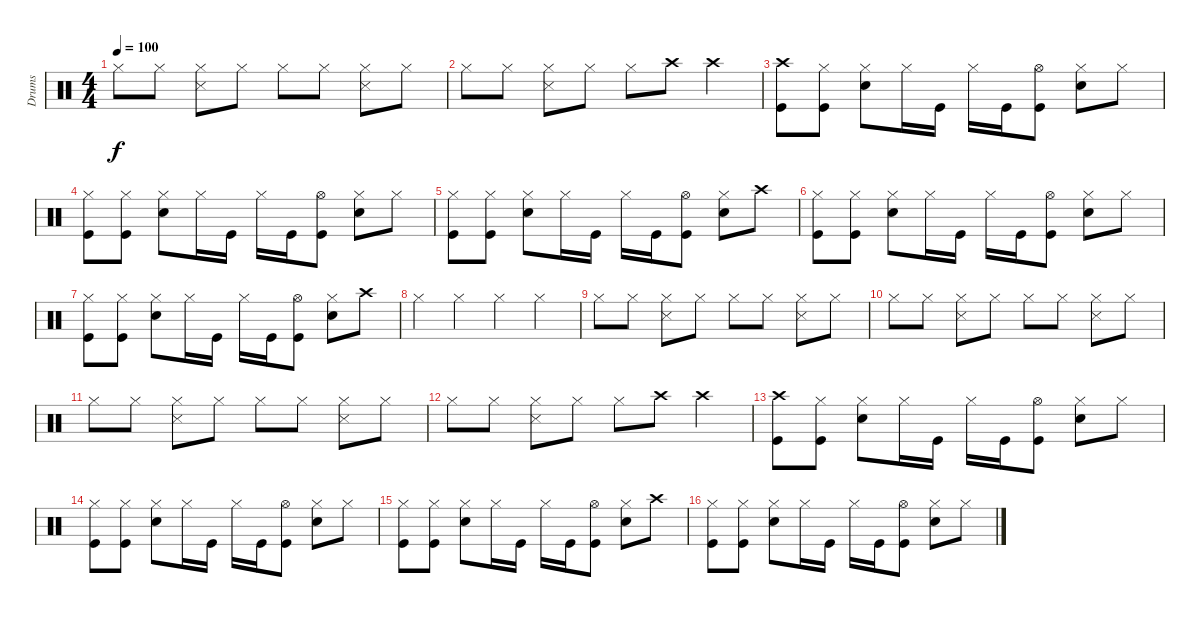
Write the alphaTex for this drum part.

\track ("Drums" "Drums") {instrument percussion}
\staff {score}
\articulation defaults
\ts (4 4)
\tempo 100
\clef neutral
\ks c "Hi-Hat (closed)".8{dy f} "Hi-Hat (closed)".8
("Hi-Hat (closed)" "Snare (side stick) 3").8 "Hi-Hat (closed)".8 "Hi-Hat (closed)".8 "Hi-Hat (closed)".8 ("Hi-Hat (closed)" "Snare (side stick) 3").8 "Hi-Hat (closed)".8 |
"Hi-Hat (closed)".8 "Hi-Hat (closed)".8 ("Hi-Hat (closed)" "Snare (side stick) 3").8 "Hi-Hat (closed)".8 "Hi-Hat (closed)".8 "Crash high (hit)".8 "Crash high (hit)".4 |
("Crash high (hit)" "Kick (hit)").8 ("Hi-Hat (closed)" "Kick (hit)").8 ("Hi-Hat (closed)" "Snare (hit) 2").8 "Hi-Hat (closed)".16 "Kick (hit)".16 "Hi-Hat (closed)".16 "Kick (hit)".16 ("Hi-Hat (open)" "Kick (hit)").8 ("Hi-Hat (closed)" "Snare (hit) 2").8 "Hi-Hat (closed)".8 |
("Hi-Hat (closed)" "Kick (hit)").8 ("Hi-Hat (closed)" "Kick (hit)").8 ("Hi-Hat (closed)" "Snare (hit) 2").8 "Hi-Hat (closed)".16 "Kick (hit)".16 "Hi-Hat (closed)".16 "Kick (hit)".16 ("Hi-Hat (open)" "Kick (hit)").8 ("Hi-Hat (closed)" "Snare (hit) 2").8 "Hi-Hat (closed)".8 |
("Hi-Hat (closed)" "Kick (hit)").8 ("Hi-Hat (closed)" "Kick (hit)").8 ("Hi-Hat (closed)" "Snare (hit) 2").8 "Hi-Hat (closed)".16 "Kick (hit)".16 "Hi-Hat (closed)".16 "Kick (hit)".16 ("Hi-Hat (open)" "Kick (hit)").8 ("Hi-Hat (closed)" "Snare (hit) 2").8 "Crash high (hit)".8 |
("Hi-Hat (closed)" "Kick (hit)").8 ("Hi-Hat (closed)" "Kick (hit)").8 ("Hi-Hat (closed)" "Snare (hit) 2").8 "Hi-Hat (closed)".16 "Kick (hit)".16 "Hi-Hat (closed)".16 "Kick (hit)".16 ("Hi-Hat (open)" "Kick (hit)").8 ("Hi-Hat (closed)" "Snare (hit) 2").8 "Hi-Hat (closed)".8 |
("Hi-Hat (closed)" "Kick (hit)").8 ("Hi-Hat (closed)" "Kick (hit)").8 ("Hi-Hat (closed)" "Snare (hit) 2").8 "Hi-Hat (closed)".16 "Kick (hit)".16 "Hi-Hat (closed)".16 "Kick (hit)".16 ("Hi-Hat (open)" "Kick (hit)").8 ("Hi-Hat (closed)" "Snare (hit) 2").8 "Crash high (hit)".8 |
"Hi-Hat (closed)".4 "Hi-Hat (closed)".4 "Hi-Hat (closed)".4 "Hi-Hat (closed)".4 |
"Hi-Hat (closed)".8 "Hi-Hat (closed)".8 ("Hi-Hat (closed)" "Snare (side stick) 3").8 "Hi-Hat (closed)".8 "Hi-Hat (closed)".8 "Hi-Hat (closed)".8 ("Hi-Hat (closed)" "Snare (side stick) 3").8 "Hi-Hat (closed)".8 |
"Hi-Hat (closed)".8 "Hi-Hat (closed)".8 ("Hi-Hat (closed)" "Snare (side stick) 3").8 "Hi-Hat (closed)".8 "Hi-Hat (closed)".8 "Hi-Hat (closed)".8 ("Hi-Hat (closed)" "Snare (side stick) 3").8 "Hi-Hat (closed)".8 |
"Hi-Hat (closed)".8 "Hi-Hat (closed)".8 ("Hi-Hat (closed)" "Snare (side stick) 3").8 "Hi-Hat (closed)".8 "Hi-Hat (closed)".8 "Hi-Hat (closed)".8 ("Hi-Hat (closed)" "Snare (side stick) 3").8 "Hi-Hat (closed)".8 |
"Hi-Hat (closed)".8 "Hi-Hat (closed)".8 ("Hi-Hat (closed)" "Snare (side stick) 3").8 "Hi-Hat (closed)".8 "Hi-Hat (closed)".8 "Crash high (hit)".8 "Crash high (hit)".4 |
("Crash high (hit)" "Kick (hit)").8 ("Hi-Hat (closed)" "Kick (hit)").8 ("Hi-Hat (closed)" "Snare (hit) 2").8 "Hi-Hat (closed)".16 "Kick (hit)".16 "Hi-Hat (closed)".16 "Kick (hit)".16 ("Hi-Hat (open)" "Kick (hit)").8 ("Hi-Hat (closed)" "Snare (hit) 2").8 "Hi-Hat (closed)".8 |
("Hi-Hat (closed)" "Kick (hit)").8 ("Hi-Hat (closed)" "Kick (hit)").8 ("Hi-Hat (closed)" "Snare (hit) 2").8 "Hi-Hat (closed)".16 "Kick (hit)".16 "Hi-Hat (closed)".16 "Kick (hit)".16 ("Hi-Hat (open)" "Kick (hit)").8 ("Hi-Hat (closed)" "Snare (hit) 2").8 "Hi-Hat (closed)".8 |
("Hi-Hat (closed)" "Kick (hit)").8 ("Hi-Hat (closed)" "Kick (hit)").8 ("Hi-Hat (closed)" "Snare (hit) 2").8 "Hi-Hat (closed)".16 "Kick (hit)".16 "Hi-Hat (closed)".16 "Kick (hit)".16 ("Hi-Hat (open)" "Kick (hit)").8 ("Hi-Hat (closed)" "Snare (hit) 2").8 "Crash high (hit)".8 |
("Hi-Hat (closed)" "Kick (hit)").8 ("Hi-Hat (closed)" "Kick (hit)").8 ("Hi-Hat (closed)" "Snare (hit) 2").8 "Hi-Hat (closed)".16 "Kick (hit)".16 "Hi-Hat (closed)".16 "Kick (hit)".16 ("Hi-Hat (open)" "Kick (hit)").8 ("Hi-Hat (closed)" "Snare (hit) 2").8 "Hi-Hat (closed)".8
